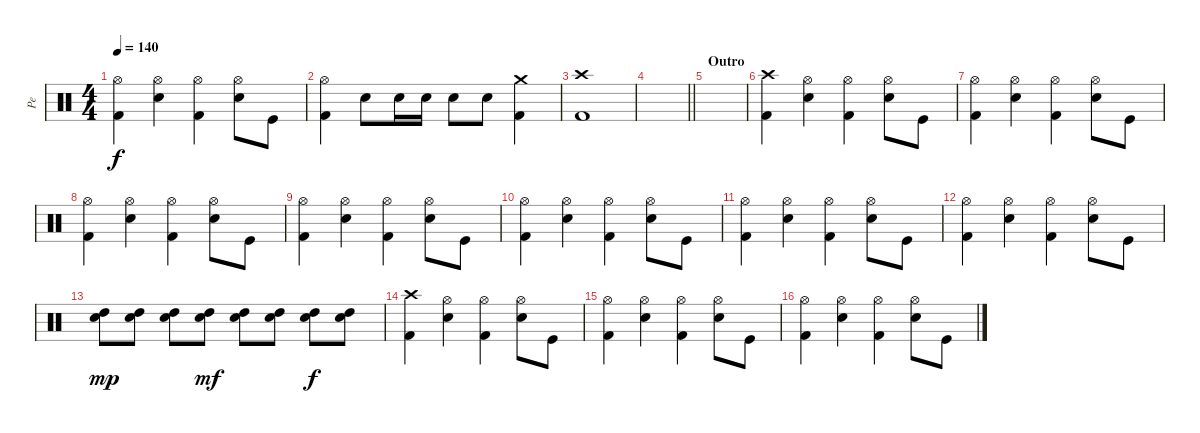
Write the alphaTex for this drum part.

\track ("Pe" "Pe") {instrument percussion}
\staff {score}
\articulation defaults
\ts (4 4)
\tempo 140
\clef neutral
\ks c
("Kick (hit) 2" "Hi-Hat (open)").4{dy f} ("Electric Snare (hit)" "Hi-Hat (open)").4 ("Kick (hit) 2" "Hi-Hat (open)").4 ("Electric Snare (hit)" "Hi-Hat (open)").8 "Kick (hit)".8 |
("Kick (hit) 2" "Hi-Hat (open)").4 "Electric Snare (hit)".8 "Electric Snare (hit)".16 "Electric Snare (hit)".16 "Electric Snare (hit)".8 "Electric Snare (hit)".8 ("Kick (hit) 2" "Crash medium (hit)").4 |
("Kick (hit) 2" "Crash high (hit)").1 |
\barLineRight lightlight
|
\section ("" "Outro")
|
("Kick (hit) 2" "Crash high (hit)").4 ("Electric Snare (hit)" "Hi-Hat (open)").4 ("Kick (hit) 2" "Hi-Hat (open)").4 ("Electric Snare (hit)" "Hi-Hat (open)").8 "Kick (hit)".8 |
("Kick (hit) 2" "Hi-Hat (open)").4 ("Electric Snare (hit)" "Hi-Hat (open)").4 ("Kick (hit) 2" "Hi-Hat (open)").4 ("Electric Snare (hit)" "Hi-Hat (open)").8 "Kick (hit)".8 |
("Kick (hit) 2" "Hi-Hat (open)").4 ("Electric Snare (hit)" "Hi-Hat (open)").4 ("Kick (hit) 2" "Hi-Hat (open)").4 ("Electric Snare (hit)" "Hi-Hat (open)").8 "Kick (hit)".8 |
("Kick (hit) 2" "Hi-Hat (open)").4 ("Electric Snare (hit)" "Hi-Hat (open)").4 ("Kick (hit) 2" "Hi-Hat (open)").4 ("Electric Snare (hit)" "Hi-Hat (open)").8 "Kick (hit)".8 |
("Kick (hit) 2" "Hi-Hat (open)").4 ("Electric Snare (hit)" "Hi-Hat (open)").4 ("Kick (hit) 2" "Hi-Hat (open)").4 ("Electric Snare (hit)" "Hi-Hat (open)").8 "Kick (hit)".8 |
("Kick (hit) 2" "Hi-Hat (open)").4 ("Electric Snare (hit)" "Hi-Hat (open)").4 ("Kick (hit) 2" "Hi-Hat (open)").4 ("Electric Snare (hit)" "Hi-Hat (open)").8 "Kick (hit)".8 |
("Kick (hit) 2" "Hi-Hat (open)").4 ("Electric Snare (hit)" "Hi-Hat (open)").4 ("Kick (hit) 2" "Hi-Hat (open)").4 ("Electric Snare (hit)" "Hi-Hat (open)").8 "Kick (hit)".8 |
("Electric Snare (hit)" "High Tom (hit)").8{dy mp} ("Electric Snare (hit)" "High Tom (hit)").8 ("Electric Snare (hit)" "High Tom (hit)").8 ("Electric Snare (hit)" "High Tom (hit)").8{dy mf} ("Electric Snare (hit)" "High Tom (hit)").8 ("Electric Snare (hit)" "High Tom (hit)").8 ("Electric Snare (hit)" "High Tom (hit)").8{dy f} ("Electric Snare (hit)" "High Tom (hit)").8 |
("Kick (hit) 2" "Crash high (hit)").4 ("Electric Snare (hit)" "Hi-Hat (open)").4 ("Kick (hit) 2" "Hi-Hat (open)").4 ("Electric Snare (hit)" "Hi-Hat (open)").8 "Kick (hit)".8 |
("Kick (hit) 2" "Hi-Hat (open)").4 ("Electric Snare (hit)" "Hi-Hat (open)").4 ("Kick (hit) 2" "Hi-Hat (open)").4 ("Electric Snare (hit)" "Hi-Hat (open)").8 "Kick (hit)".8 |
("Kick (hit) 2" "Hi-Hat (open)").4 ("Electric Snare (hit)" "Hi-Hat (open)").4 ("Kick (hit) 2" "Hi-Hat (open)").4 ("Electric Snare (hit)" "Hi-Hat (open)").8 "Kick (hit)".8
